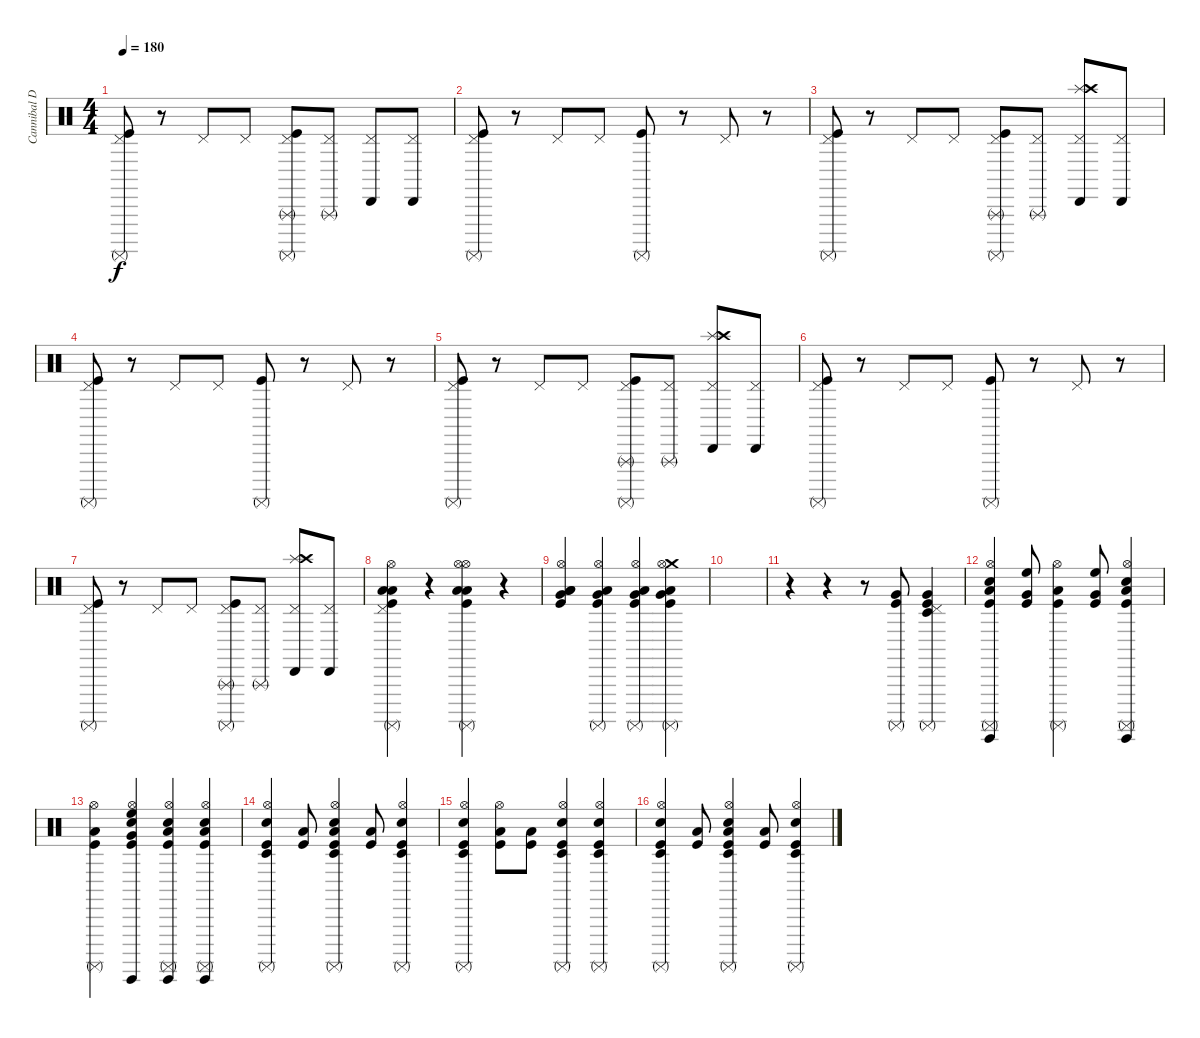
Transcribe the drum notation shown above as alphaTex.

\track ("Cannibal Drums :)" "Cannibal D") {instrument percussion}
\staff {score}
\articulation defaults
\ts (4 4)
\tempo 180
\clef neutral
\ks c
("Kick (hit)" "Surdo (mute)" "Pedal Hi-Hat (hit)").8{dy f} r.8 "Pedal Hi-Hat (hit)".8 "Pedal Hi-Hat (hit)".8 ("Kick (hit)" "Surdo (mute)" "Pedal Hi-Hat (hit)" "Triangle (rnute)").8 ("Pedal Hi-Hat (hit)" "Triangle (rnute)").8 ("Pedal Hi-Hat (hit)" "Cabasa (hit)").8 ("Pedal Hi-Hat (hit)" "Cabasa (hit)").8 |
("Kick (hit)" "Surdo (mute)" "Pedal Hi-Hat (hit)").8 r.8 "Pedal Hi-Hat (hit)".8 "Pedal Hi-Hat (hit)".8 ("Kick (hit)" "Surdo (mute)").8 r.8 "Pedal Hi-Hat (hit)".8 r.8 |
("Kick (hit)" "Surdo (mute)" "Pedal Hi-Hat (hit)").8 r.8 "Pedal Hi-Hat (hit)".8 "Pedal Hi-Hat (hit)".8 ("Kick (hit)" "Surdo (mute)" "Pedal Hi-Hat (hit)" "Triangle (rnute)").8 ("Pedal Hi-Hat (hit)" "Triangle (rnute)").8 ("Pedal Hi-Hat (hit)" "Cabasa (hit)" "Splash (hit)" "Crash high (hit)").8 ("Pedal Hi-Hat (hit)" "Cabasa (hit)").8 |
("Kick (hit)" "Surdo (mute)" "Pedal Hi-Hat (hit)").8 r.8 "Pedal Hi-Hat (hit)".8 "Pedal Hi-Hat (hit)".8 ("Kick (hit)" "Surdo (mute)").8 r.8 "Pedal Hi-Hat (hit)".8 r.8 |
("Kick (hit)" "Surdo (mute)" "Pedal Hi-Hat (hit)").8 r.8 "Pedal Hi-Hat (hit)".8 "Pedal Hi-Hat (hit)".8 ("Kick (hit)" "Surdo (mute)" "Pedal Hi-Hat (hit)" "Triangle (rnute)").8 ("Pedal Hi-Hat (hit)" "Triangle (rnute)").8 ("Pedal Hi-Hat (hit)" "Cabasa (hit)" "Splash (hit)" "Crash high (hit)").8 ("Pedal Hi-Hat (hit)" "Cabasa (hit)").8 |
("Kick (hit)" "Surdo (mute)" "Pedal Hi-Hat (hit)").8 r.8 "Pedal Hi-Hat (hit)".8 "Pedal Hi-Hat (hit)".8 ("Kick (hit)" "Surdo (mute)").8 r.8 "Pedal Hi-Hat (hit)".8 r.8 |
("Kick (hit)" "Surdo (mute)" "Pedal Hi-Hat (hit)").8 r.8 "Pedal Hi-Hat (hit)".8 "Pedal Hi-Hat (hit)".8 ("Kick (hit)" "Surdo (mute)" "Pedal Hi-Hat (hit)" "Triangle (rnute)").8 ("Pedal Hi-Hat (hit)" "Triangle (rnute)").8 ("Pedal Hi-Hat (hit)" "Cabasa (hit)" "Splash (hit)" "Crash high (hit)").8 ("Pedal Hi-Hat (hit)" "Cabasa (hit)").8 |
("Kick (hit)" "Pedal Hi-Hat (hit)" "Low Floor Tom (hit)" "Low Tom (hit)" "Surdo (mute)" "Hi-Hat (open)").4 r.4 ("Kick (hit)" "Hi-Hat (open)" "Low Floor Tom (hit)" "Low Tom (hit)" "Surdo (mute)" "Hi-Hat (open)").4 r.4 |
("Kick (hit)" "Very Low Tom (hit)" "Low Tom (hit)" "Low Floor Tom (hit)" "Hi-Hat (open)").4 ("Kick (hit)" "Very Low Tom (hit)" "Low Tom (hit)" "Surdo (mute)" "Hi-Hat (open)").4 ("Kick (hit)" "Very Low Tom (hit)" "Low Tom (hit)" "Surdo (mute)" "Hi-Hat (open)").4 ("Kick (hit)" "Very Low Tom (hit)" "Crash medium (hit)" "Low Tom (hit)" "Surdo (mute)" "Hi-Hat (open)").4 |
|
r.4 r.4 r.8 ("Kick (hit)" "Very Low Tom (hit)" "Surdo (mute)").8 ("Kick (hit)" "Timbale low (hit)" "Surdo (mute)" "Pedal Hi-Hat (hit)" "Very Low Tom (hit)").4 |
("Kick (hit)" "Hand Clap (hit)" "Guiro (hit)" "Low Tom (hit)" "Surdo (mute)" "Hi-Hat (open)").4 ("Kick (hit)" "High Floor Tom (hit)" "Very Low Tom (hit)").8 ("Kick (hit)" "Low Tom (hit)" "Hi-Hat (open)" "Surdo (mute)").4 ("Kick (hit)" "High Floor Tom (hit)" "Very Low Tom (hit)").8 ("Kick (hit)" "Hand Clap (hit)" "Guiro (hit)" "Low Tom (hit)" "Surdo (mute)" "Hi-Hat (open)").4 |
("Kick (hit)" "Low Tom (hit)" "Surdo (mute)" "Hi-Hat (open)").4 ("Kick (hit)" "Hand Clap (hit)" "Guiro (hit)" "High Floor Tom (hit)" "Very Low Tom (hit)" "Hi-Hat (open)").4 ("Kick (hit)" "Hand Clap (hit)" "Guiro (hit)" "Low Tom (hit)" "Surdo (mute)" "Hi-Hat (open)").4 ("Kick (hit)" "Hand Clap (hit)" "Guiro (hit)" "Low Tom (hit)" "Surdo (mute)" "Hi-Hat (open)").4 |
("Kick (hit)" "Hi-Hat (open)" "Surdo (mute)" "Timbale low (hit)" "Snare (hit) 2").4 ("Kick (hit)" "Low Floor Tom (hit)").8 ("Kick (hit)" "Hi-Hat (open)" "Timbale low (hit)" "Low Tom (hit)" "Snare (hit) 2" "Surdo (mute)").4 ("Kick (hit)" "Low Floor Tom (hit)").8 ("Kick (hit)" "Hi-Hat (open)" "Timbale low (hit)" "Surdo (mute)" "Snare (hit) 2").4 |
("Kick (hit)" "Hi-Hat (open)" "Timbale low (hit)" "Surdo (mute)" "Snare (hit) 2").4 ("Kick (hit)" "Hi-Hat (open)" "Low Floor Tom (hit)").8 ("Kick (hit)" "Low Floor Tom (hit)").8 ("Kick (hit)" "Hi-Hat (open)" "Timbale low (hit)" "Surdo (mute)" "Snare (hit) 2").4 ("Kick (hit)" "Hi-Hat (open)" "Timbale low (hit)" "Surdo (mute)" "Snare (hit) 2").4 |
("Kick (hit)" "Hi-Hat (open)" "Surdo (mute)" "Timbale low (hit)" "Snare (hit) 2").4 ("Kick (hit)" "Low Floor Tom (hit)").8 ("Kick (hit)" "Hi-Hat (open)" "Timbale low (hit)" "Low Tom (hit)" "Snare (hit) 2" "Surdo (mute)").4 ("Kick (hit)" "Low Floor Tom (hit)").8 ("Kick (hit)" "Hi-Hat (open)" "Timbale low (hit)" "Surdo (mute)" "Snare (hit) 2").4
